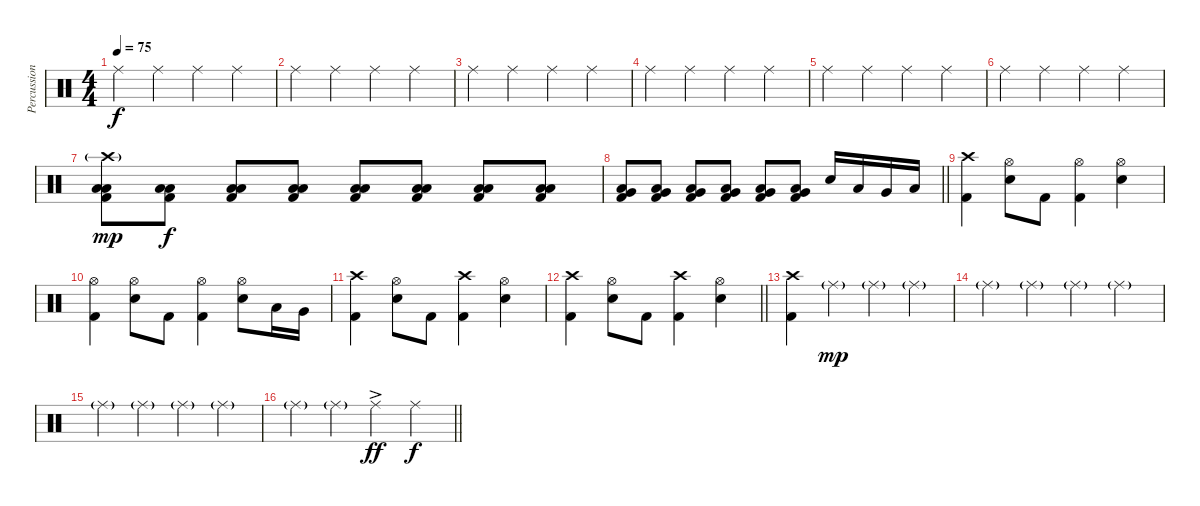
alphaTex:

\track ("Percussions" "Percussion") {instrument percussion}
\staff {score}
\articulation defaults
\ts (4 4)
\tempo 75
\clef neutral
\ks c "Ride (middle)".4{dy f} "Ride (middle)".4 "Ride (middle)".4 "Ride (middle)".4
|
"Ride (middle)".4 "Ride (middle)".4 "Ride (middle)".4 "Ride (middle)".4 |
"Ride (middle)".4 "Ride (middle)".4 "Ride (middle)".4 "Ride (middle)".4 |
"Ride (middle)".4 "Ride (middle)".4 "Ride (middle)".4 "Ride (middle)".4 |
"Ride (middle)".4 "Ride (middle)".4 "Ride (middle)".4 "Ride (middle)".4 |
"Ride (middle)".4 "Ride (middle)".4 "Ride (middle)".4 "Ride (middle)".4 |
("Crash high (hit)"{g} "Low Tom (hit)" "Low Tom (hit)" "Kick (hit) 2").8{dy mp} ("Low Tom (hit)" "Low Tom (hit)" "Kick (hit) 2").8{dy f} ("Low Tom (hit)" "Low Tom (hit)" "Kick (hit) 2").8 ("Low Tom (hit)" "Low Tom (hit)" "Kick (hit) 2").8 ("Low Tom (hit)" "Low Tom (hit)" "Kick (hit) 2").8 ("Low Tom (hit)" "Low Tom (hit)" "Kick (hit) 2").8 ("Low Tom (hit)" "Low Tom (hit)" "Kick (hit) 2").8 ("Low Tom (hit)" "Low Tom (hit)" "Kick (hit) 2").8 |
\barLineRight lightlight
("Very Low Tom (hit)" "Low Tom (hit)" "Kick (hit) 2").8 ("Very Low Tom (hit)" "Low Tom (hit)" "Kick (hit) 2").8 ("Very Low Tom (hit)" "Low Tom (hit)" "Kick (hit) 2").8 ("Very Low Tom (hit)" "Low Tom (hit)" "Kick (hit) 2").8 ("Very Low Tom (hit)" "Low Floor Tom (hit)" "Kick (hit) 2").8 ("Very Low Tom (hit)" "Low Floor Tom (hit)" "Kick (hit) 2").8 "Electric Snare (hit)".16 "Low Tom (hit)".16 "Very Low Tom (hit)".16 "Low Floor Tom (hit)".16 |
("Crash high (hit)" "Kick (hit) 2").4 ("Hi-Hat (open)" "Electric Snare (hit)").8 "Kick (hit) 2".8 ("Hi-Hat (open)" "Kick (hit) 2").4 ("Hi-Hat (open)" "Electric Snare (hit)").4 |
("Hi-Hat (open)" "Kick (hit) 2").4 ("Hi-Hat (open)" "Electric Snare (hit)").8 "Kick (hit) 2".8 ("Hi-Hat (open)" "Kick (hit) 2").4 ("Hi-Hat (open)" "Electric Snare (hit)").8 "Low Tom (hit)".16 "Very Low Tom (hit)".16 |
("Crash high (hit)" "Kick (hit) 2").4 ("Hi-Hat (open)" "Electric Snare (hit)").8 "Kick (hit) 2".8 ("Crash high (hit)" "Kick (hit) 2").4 ("Hi-Hat (open)" "Electric Snare (hit)").4 |
\barLineRight lightlight
("Crash high (hit)" "Kick (hit) 2").4 ("Hi-Hat (open)" "Electric Snare (hit)").8 "Kick (hit) 2".8 ("Crash high (hit)" "Kick (hit) 2").4 ("Hi-Hat (open)" "Electric Snare (hit)").4 |
("Crash high (hit)" "Kick (hit) 2").4 "Ride (middle)"{g}.4{dy mp} "Ride (middle)"{g}.4 "Ride (middle)"{g}.4 |
"Ride (middle)"{g}.4 "Ride (middle)"{g}.4 "Ride (middle)"{g}.4 "Ride (middle)"{g}.4 |
"Ride (middle)"{g}.4 "Ride (middle)"{g}.4 "Ride (middle)"{g}.4 "Ride (middle)"{g}.4 |
\barLineRight lightlight "Ride (middle)"{g}.4 "Ride (middle)"{g}.4 "Ride (middle)"{ac}.4{dy ff} "Ride (middle)".4{dy f}
